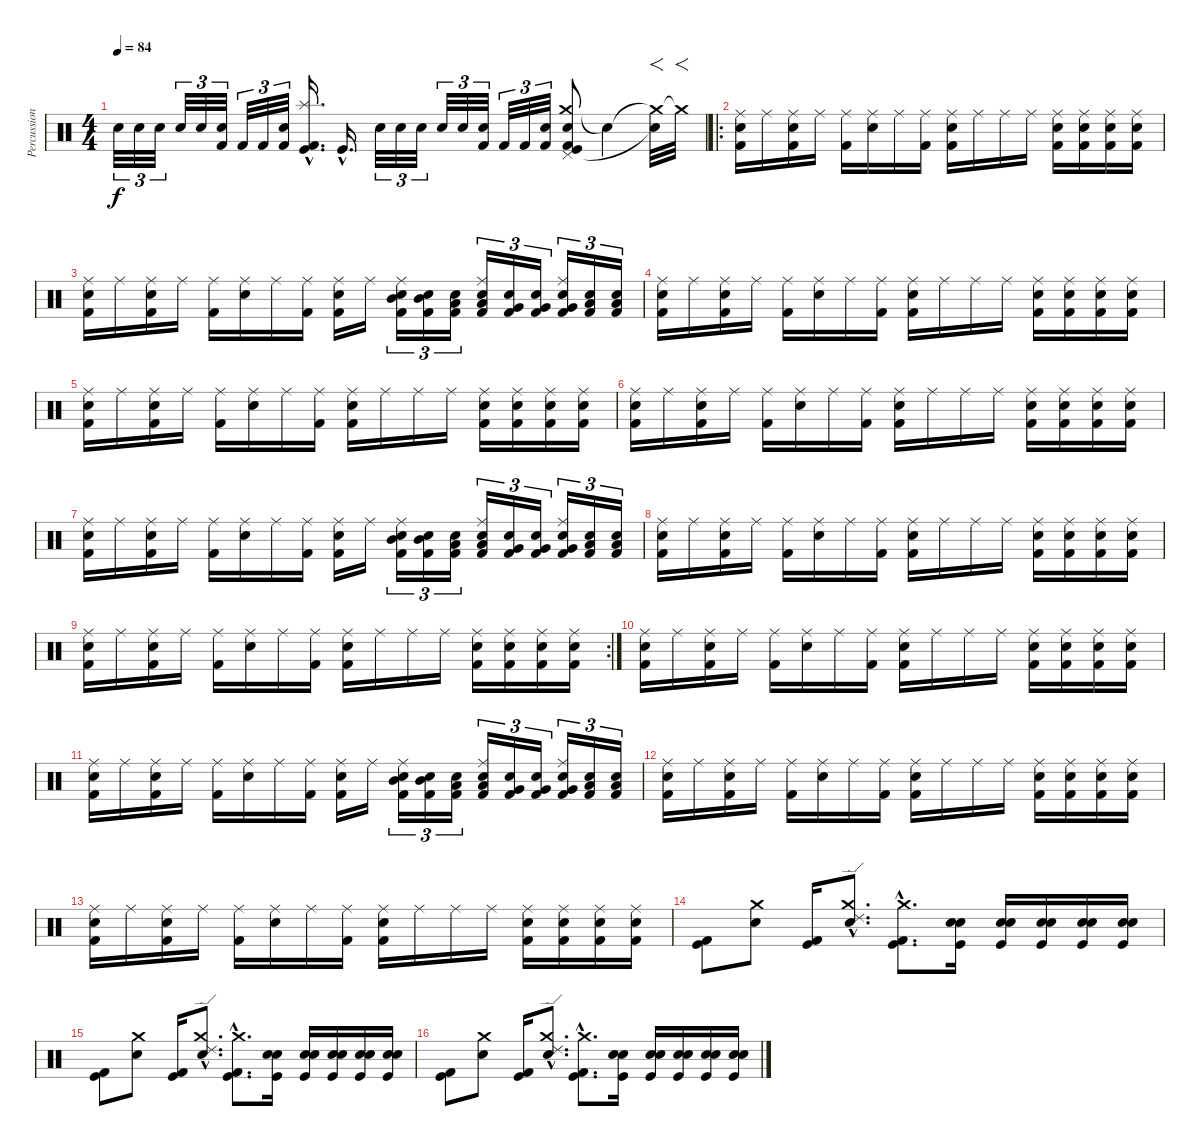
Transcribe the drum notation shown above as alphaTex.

\track ("Percussions" "Percussion") {instrument percussion}
\staff {score}
\articulation defaults
\ts (4 4)
\tempo 84
\clef neutral
\ks c "Snare (hit) 2".32{tu (3 2) dy f} "Snare (hit) 2".32{tu (3 2)} "Snare (hit) 2".32{tu (3 2)} "Snare (hit) 2".32{tu (3 2)} "Snare (hit) 2".32{tu (3 2)}
("Snare (hit) 2" "Kick (hit) 2").32{tu (3 2)} "Kick (hit) 2".32{tu (3 2)} "Kick (hit) 2".32{tu (3 2)} ("Snare (hit) 2" "Kick (hit) 2").32{tu (3 2)} ("Splash (hit)"{hac} "Kick (hit) 2"{hac} "Kick (hit)"{hac}).16{d} "Kick (hit)"{hac}.16{d} "Snare (hit) 2".32{tu (3 2)} "Snare (hit) 2".32{tu (3 2)} "Snare (hit) 2".32{tu (3 2)} "Snare (hit) 2".32{tu (3 2)} "Snare (hit) 2".32{tu (3 2)} ("Snare (hit) 2" "Kick (hit) 2").32{tu (3 2)} "Kick (hit) 2".32{tu (3 2)} "Kick (hit) 2".32{tu (3 2)} ("Snare (hit) 2" "Kick (hit) 2").32{tu (3 2)} ("Crash medium (hit)" "Pedal Hi-Hat (hit)" "Snare (hit) 2" "Kick (hit) 2" "Kick (hit)").8 "Snare (hit)"{t}.4 ("Crash medium (hit)"{t} "Snare (hit)"{t}).32{f} "Crash medium (hit)"{t}.32{f} |
\ro
("Ride (middle)" "Snare (hit) 2" "Kick (hit) 2").16 "Ride (middle)".16 ("Ride (middle)" "Snare (hit) 2" "Kick (hit) 2").16 "Ride (middle)".16 ("Ride (middle)" "Kick (hit) 2").16 ("Ride (middle)" "Snare (hit) 2").16 "Ride (middle)".16 ("Ride (middle)" "Kick (hit) 2").16 ("Ride (middle)" "Snare (hit) 2" "Kick (hit) 2").16 "Ride (middle)".16 "Ride (middle)".16 "Ride (middle)".16 ("Ride (middle)" "Snare (hit) 2" "Kick (hit) 2").16 ("Ride (middle)" "Kick (hit) 2" "Snare (hit) 2").16 ("Ride (middle)" "Snare (hit) 2" "Kick (hit) 2").16 ("Ride (middle)" "Snare (hit) 2" "Kick (hit) 2").16 |
("Ride (middle)" "Snare (hit) 2" "Kick (hit) 2").16 "Ride (middle)".16 ("Ride (middle)" "Snare (hit) 2" "Kick (hit) 2").16 "Ride (middle)".16 ("Ride (middle)" "Kick (hit) 2").16 ("Ride (middle)" "Snare (hit) 2").16 "Ride (middle)".16 ("Ride (middle)" "Kick (hit) 2").16 ("Ride (middle)" "Snare (hit) 2" "Kick (hit) 2").16 "Ride (middle)".16 ("Ride (middle)" "Snare (hit) 2" "Mid Tom (hit)" "Kick (hit) 2").16{tu (3 2)} ("Snare (hit) 2" "Mid Tom (hit)" "Kick (hit) 2").16{tu (3 2)} ("Snare (hit) 2" "Low Tom (hit)" "Kick (hit) 2").16{tu (3 2)} ("Ride (middle)" "Snare (hit) 2" "Low Tom (hit)" "Kick (hit) 2").16{tu (3 2)} ("Snare (hit) 2" "Very Low Tom (hit)" "Kick (hit) 2").16{tu (3 2)} ("Electric Snare (hit)" "Very Low Tom (hit)" "Kick (hit) 2").16{tu (3 2)} ("Ride (middle)" "Electric Snare (hit)" "Very Low Tom (hit)" "Kick (hit) 2").16{tu (3 2)} ("Electric Snare (hit)" "Low Floor Tom (hit)" "Kick (hit) 2").16{tu (3 2)} ("Electric Snare (hit)" "Low Floor Tom (hit)" "Kick (hit) 2").16{tu (3 2)} |
("Ride (middle)" "Snare (hit) 2" "Kick (hit) 2").16 "Ride (middle)".16 ("Ride (middle)" "Snare (hit) 2" "Kick (hit) 2").16 "Ride (middle)".16 ("Ride (middle)" "Kick (hit) 2").16 ("Ride (middle)" "Snare (hit) 2").16 "Ride (middle)".16 ("Ride (middle)" "Kick (hit) 2").16 ("Ride (middle)" "Snare (hit) 2" "Kick (hit) 2").16 "Ride (middle)".16 "Ride (middle)".16 "Ride (middle)".16 ("Ride (middle)" "Snare (hit) 2" "Kick (hit) 2").16 ("Ride (middle)" "Kick (hit) 2" "Snare (hit) 2").16 ("Ride (middle)" "Snare (hit) 2" "Kick (hit) 2").16 ("Ride (middle)" "Snare (hit) 2" "Kick (hit) 2").16 |
("Ride (middle)" "Snare (hit) 2" "Kick (hit) 2").16 "Ride (middle)".16 ("Ride (middle)" "Snare (hit) 2" "Kick (hit) 2").16 "Ride (middle)".16 ("Ride (middle)" "Kick (hit) 2").16 ("Ride (middle)" "Snare (hit) 2").16 "Ride (middle)".16 ("Ride (middle)" "Kick (hit) 2").16 ("Ride (middle)" "Snare (hit) 2" "Kick (hit) 2").16 "Ride (middle)".16 "Ride (middle)".16 "Ride (middle)".16 ("Ride (middle)" "Snare (hit) 2" "Kick (hit) 2").16 ("Ride (middle)" "Kick (hit) 2" "Snare (hit) 2").16 ("Ride (middle)" "Snare (hit) 2" "Kick (hit) 2").16 ("Ride (middle)" "Snare (hit) 2" "Kick (hit) 2").16 |
("Ride (middle)" "Snare (hit) 2" "Kick (hit) 2").16 "Ride (middle)".16 ("Ride (middle)" "Snare (hit) 2" "Kick (hit) 2").16 "Ride (middle)".16 ("Ride (middle)" "Kick (hit) 2").16 ("Ride (middle)" "Snare (hit) 2").16 "Ride (middle)".16 ("Ride (middle)" "Kick (hit) 2").16 ("Ride (middle)" "Snare (hit) 2" "Kick (hit) 2").16 "Ride (middle)".16 "Ride (middle)".16 "Ride (middle)".16 ("Ride (middle)" "Snare (hit) 2" "Kick (hit) 2").16 ("Ride (middle)" "Kick (hit) 2" "Snare (hit) 2").16 ("Ride (middle)" "Snare (hit) 2" "Kick (hit) 2").16 ("Ride (middle)" "Snare (hit) 2" "Kick (hit) 2").16 |
("Ride (middle)" "Snare (hit) 2" "Kick (hit) 2").16 "Ride (middle)".16 ("Ride (middle)" "Snare (hit) 2" "Kick (hit) 2").16 "Ride (middle)".16 ("Ride (middle)" "Kick (hit) 2").16 ("Ride (middle)" "Snare (hit) 2").16 "Ride (middle)".16 ("Ride (middle)" "Kick (hit) 2").16 ("Ride (middle)" "Snare (hit) 2" "Kick (hit) 2").16 "Ride (middle)".16 ("Ride (middle)" "Snare (hit) 2" "Mid Tom (hit)" "Kick (hit) 2").16{tu (3 2)} ("Snare (hit) 2" "Mid Tom (hit)" "Kick (hit) 2").16{tu (3 2)} ("Snare (hit) 2" "Low Tom (hit)" "Kick (hit) 2").16{tu (3 2)} ("Ride (middle)" "Snare (hit) 2" "Low Tom (hit)" "Kick (hit) 2").16{tu (3 2)} ("Snare (hit) 2" "Very Low Tom (hit)" "Kick (hit) 2").16{tu (3 2)} ("Electric Snare (hit)" "Very Low Tom (hit)" "Kick (hit) 2").16{tu (3 2)} ("Ride (middle)" "Electric Snare (hit)" "Very Low Tom (hit)" "Kick (hit) 2").16{tu (3 2)} ("Electric Snare (hit)" "Low Floor Tom (hit)" "Kick (hit) 2").16{tu (3 2)} ("Electric Snare (hit)" "Low Floor Tom (hit)" "Kick (hit) 2").16{tu (3 2)} |
("Ride (middle)" "Snare (hit) 2" "Kick (hit) 2").16 "Ride (middle)".16 ("Ride (middle)" "Snare (hit) 2" "Kick (hit) 2").16 "Ride (middle)".16 ("Ride (middle)" "Kick (hit) 2").16 ("Ride (middle)" "Snare (hit) 2").16 "Ride (middle)".16 ("Ride (middle)" "Kick (hit) 2").16 ("Ride (middle)" "Snare (hit) 2" "Kick (hit) 2").16 "Ride (middle)".16 "Ride (middle)".16 "Ride (middle)".16 ("Ride (middle)" "Snare (hit) 2" "Kick (hit) 2").16 ("Ride (middle)" "Kick (hit) 2" "Snare (hit) 2").16 ("Ride (middle)" "Snare (hit) 2" "Kick (hit) 2").16 ("Ride (middle)" "Snare (hit) 2" "Kick (hit) 2").16 |
\rc 2
("Ride (middle)" "Snare (hit) 2" "Kick (hit) 2").16 "Ride (middle)".16 ("Ride (middle)" "Snare (hit) 2" "Kick (hit) 2").16 "Ride (middle)".16 ("Ride (middle)" "Kick (hit) 2").16 ("Ride (middle)" "Snare (hit) 2").16 "Ride (middle)".16 ("Ride (middle)" "Kick (hit) 2").16 ("Ride (middle)" "Snare (hit) 2" "Kick (hit) 2").16 "Ride (middle)".16 "Ride (middle)".16 "Ride (middle)".16 ("Ride (middle)" "Snare (hit) 2" "Kick (hit) 2").16 ("Ride (middle)" "Kick (hit) 2" "Snare (hit) 2").16 ("Ride (middle)" "Snare (hit) 2" "Kick (hit) 2").16 ("Ride (middle)" "Snare (hit) 2" "Kick (hit) 2").16 |
("Ride (middle)" "Snare (hit) 2" "Kick (hit) 2").16 "Ride (middle)".16 ("Ride (middle)" "Snare (hit) 2" "Kick (hit) 2").16 "Ride (middle)".16 ("Ride (middle)" "Kick (hit) 2").16 ("Ride (middle)" "Snare (hit) 2").16 "Ride (middle)".16 ("Ride (middle)" "Kick (hit) 2").16 ("Ride (middle)" "Snare (hit) 2" "Kick (hit) 2").16 "Ride (middle)".16 "Ride (middle)".16 "Ride (middle)".16 ("Ride (middle)" "Snare (hit) 2" "Kick (hit) 2").16 ("Ride (middle)" "Kick (hit) 2" "Snare (hit) 2").16 ("Ride (middle)" "Snare (hit) 2" "Kick (hit) 2").16 ("Ride (middle)" "Snare (hit) 2" "Kick (hit) 2").16 |
("Ride (middle)" "Snare (hit) 2" "Kick (hit) 2").16 "Ride (middle)".16 ("Ride (middle)" "Snare (hit) 2" "Kick (hit) 2").16 "Ride (middle)".16 ("Ride (middle)" "Kick (hit) 2").16 ("Ride (middle)" "Snare (hit) 2").16 "Ride (middle)".16 ("Ride (middle)" "Kick (hit) 2").16 ("Ride (middle)" "Snare (hit) 2" "Kick (hit) 2").16 "Ride (middle)".16 ("Ride (middle)" "Snare (hit) 2" "Mid Tom (hit)" "Kick (hit) 2").16{tu (3 2)} ("Snare (hit) 2" "Mid Tom (hit)" "Kick (hit) 2").16{tu (3 2)} ("Snare (hit) 2" "Low Tom (hit)" "Kick (hit) 2").16{tu (3 2)} ("Ride (middle)" "Snare (hit) 2" "Low Tom (hit)" "Kick (hit) 2").16{tu (3 2)} ("Snare (hit) 2" "Very Low Tom (hit)" "Kick (hit) 2").16{tu (3 2)} ("Electric Snare (hit)" "Very Low Tom (hit)" "Kick (hit) 2").16{tu (3 2)} ("Ride (middle)" "Electric Snare (hit)" "Very Low Tom (hit)" "Kick (hit) 2").16{tu (3 2)} ("Electric Snare (hit)" "Low Floor Tom (hit)" "Kick (hit) 2").16{tu (3 2)} ("Electric Snare (hit)" "Low Floor Tom (hit)" "Kick (hit) 2").16{tu (3 2)} |
("Ride (middle)" "Snare (hit) 2" "Kick (hit) 2").16 "Ride (middle)".16 ("Ride (middle)" "Snare (hit) 2" "Kick (hit) 2").16 "Ride (middle)".16 ("Ride (middle)" "Kick (hit) 2").16 ("Ride (middle)" "Snare (hit) 2").16 "Ride (middle)".16 ("Ride (middle)" "Kick (hit) 2").16 ("Ride (middle)" "Snare (hit) 2" "Kick (hit) 2").16 "Ride (middle)".16 "Ride (middle)".16 "Ride (middle)".16 ("Ride (middle)" "Snare (hit) 2" "Kick (hit) 2").16 ("Ride (middle)" "Kick (hit) 2" "Snare (hit) 2").16 ("Ride (middle)" "Snare (hit) 2" "Kick (hit) 2").16 ("Ride (middle)" "Snare (hit) 2" "Kick (hit) 2").16 |
("Ride (middle)" "Snare (hit) 2" "Kick (hit) 2").16 "Ride (middle)".16 ("Ride (middle)" "Snare (hit) 2" "Kick (hit) 2").16 "Ride (middle)".16 ("Ride (middle)" "Kick (hit) 2").16 ("Ride (middle)" "Snare (hit) 2").16 "Ride (middle)".16 ("Ride (middle)" "Kick (hit) 2").16 ("Ride (middle)" "Snare (hit) 2" "Kick (hit) 2").16 "Ride (middle)".16 "Ride (middle)".16 "Ride (middle)".16 ("Ride (middle)" "Snare (hit) 2" "Kick (hit) 2").16 ("Ride (middle)" "Kick (hit) 2" "Snare (hit) 2").16 ("Ride (middle)" "Snare (hit) 2" "Kick (hit) 2").16 ("Ride (middle)" "Snare (hit) 2" "Kick (hit) 2").16 |
("Kick (hit)" "Kick (hit) 2").8 ("Crash medium (hit)" "Snare (hit) 2").8 ("Kick (hit)" "Kick (hit) 2").16 ("Crash medium (hit)"{hac} "Snare (hit) 2"{hac} "Ride (edge) 2"{hac}).8{d} ("Crash medium (hit)"{hac} "Kick (hit)"{hac} "Kick (hit) 2"{hac}).8{d} ("Kick (hit)" "Electric Snare (hit)" "Electric Snare (hit)").16 ("Kick (hit)" "Electric Snare (hit)" "Electric Snare (hit)").16 ("Kick (hit)" "Electric Snare (hit)" "Electric Snare (hit)").16 ("Kick (hit)" "Electric Snare (hit)" "Electric Snare (hit)").16 ("Kick (hit)" "Electric Snare (hit)" "Electric Snare (hit)").16 |
("Kick (hit)" "Kick (hit) 2").8 ("Crash medium (hit)" "Snare (hit) 2").8 ("Kick (hit)" "Kick (hit) 2").16 ("Crash medium (hit)"{hac} "Snare (hit) 2"{hac} "Ride (edge) 2"{hac}).8{d} ("Crash medium (hit)"{hac} "Kick (hit)"{hac} "Kick (hit) 2"{hac}).8{d} ("Kick (hit)" "Electric Snare (hit)" "Electric Snare (hit)").16 ("Kick (hit)" "Electric Snare (hit)" "Electric Snare (hit)").16 ("Kick (hit)" "Electric Snare (hit)" "Electric Snare (hit)").16 ("Kick (hit)" "Electric Snare (hit)" "Electric Snare (hit)").16 ("Kick (hit)" "Electric Snare (hit)" "Electric Snare (hit)").16 |
("Kick (hit)" "Kick (hit) 2").8 ("Crash medium (hit)" "Snare (hit) 2").8 ("Kick (hit)" "Kick (hit) 2").16 ("Crash medium (hit)"{hac} "Snare (hit) 2"{hac} "Ride (edge) 2"{hac}).8{d} ("Crash medium (hit)"{hac} "Kick (hit)"{hac} "Kick (hit) 2"{hac}).8{d} ("Kick (hit)" "Electric Snare (hit)" "Electric Snare (hit)").16 ("Kick (hit)" "Electric Snare (hit)" "Electric Snare (hit)").16 ("Kick (hit)" "Electric Snare (hit)" "Electric Snare (hit)").16 ("Kick (hit)" "Electric Snare (hit)" "Electric Snare (hit)").16 ("Kick (hit)" "Electric Snare (hit)" "Electric Snare (hit)").16
